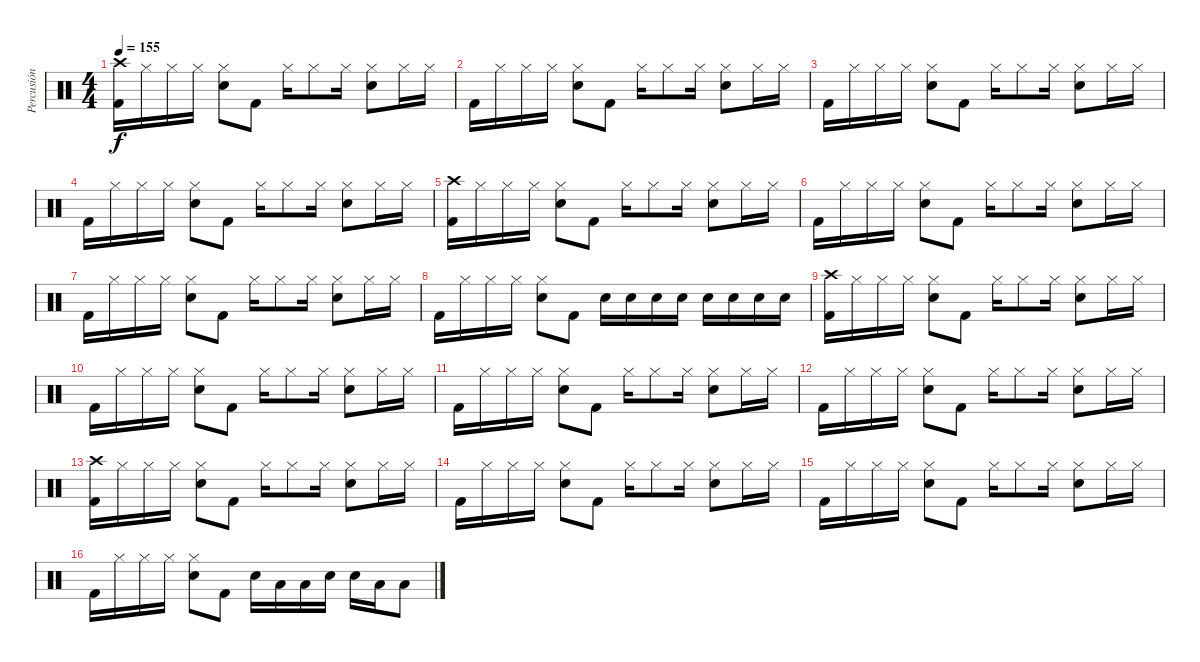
\track ("Percusión" "Percusión") {instrument percussion}
\staff {score}
\articulation defaults
\ts (4 4)
\tempo 155
\clef neutral
\ks c
("Crash high (hit)" "Kick (hit) 2").16{dy f} "Hi-Hat (closed)".16 "Hi-Hat (closed)".16 "Hi-Hat (closed)".16 ("Hi-Hat (closed)" "Snare (hit) 2").8 "Kick (hit) 2".8 "Hi-Hat (closed)".16 "Hi-Hat (closed)".8 "Hi-Hat (closed)".16 ("Hi-Hat (closed)" "Snare (hit) 2").8 "Hi-Hat (closed)".16 "Hi-Hat (closed)".16 |
"Kick (hit) 2".16 "Hi-Hat (closed)".16 "Hi-Hat (closed)".16 "Hi-Hat (closed)".16 ("Hi-Hat (closed)" "Snare (hit) 2").8 "Kick (hit) 2".8 "Hi-Hat (closed)".16 "Hi-Hat (closed)".8 "Hi-Hat (closed)".16 ("Hi-Hat (closed)" "Snare (hit) 2").8 "Hi-Hat (closed)".16 "Hi-Hat (closed)".16 |
"Kick (hit) 2".16 "Hi-Hat (closed)".16 "Hi-Hat (closed)".16 "Hi-Hat (closed)".16 ("Hi-Hat (closed)" "Snare (hit) 2").8 "Kick (hit) 2".8 "Hi-Hat (closed)".16 "Hi-Hat (closed)".8 "Hi-Hat (closed)".16 ("Hi-Hat (closed)" "Snare (hit) 2").8 "Hi-Hat (closed)".16 "Hi-Hat (closed)".16 |
"Kick (hit) 2".16 "Hi-Hat (closed)".16 "Hi-Hat (closed)".16 "Hi-Hat (closed)".16 ("Hi-Hat (closed)" "Snare (hit) 2").8 "Kick (hit) 2".8 "Hi-Hat (closed)".16 "Hi-Hat (closed)".8 "Hi-Hat (closed)".16 ("Hi-Hat (closed)" "Snare (hit) 2").8 "Hi-Hat (closed)".16 "Hi-Hat (closed)".16 |
("Crash high (hit)" "Kick (hit) 2").16 "Hi-Hat (closed)".16 "Hi-Hat (closed)".16 "Hi-Hat (closed)".16 ("Hi-Hat (closed)" "Snare (hit) 2").8 "Kick (hit) 2".8 "Hi-Hat (closed)".16 "Hi-Hat (closed)".8 "Hi-Hat (closed)".16 ("Hi-Hat (closed)" "Snare (hit) 2").8 "Hi-Hat (closed)".16 "Hi-Hat (closed)".16 |
"Kick (hit) 2".16 "Hi-Hat (closed)".16 "Hi-Hat (closed)".16 "Hi-Hat (closed)".16 ("Hi-Hat (closed)" "Snare (hit) 2").8 "Kick (hit) 2".8 "Hi-Hat (closed)".16 "Hi-Hat (closed)".8 "Hi-Hat (closed)".16 ("Hi-Hat (closed)" "Snare (hit) 2").8 "Hi-Hat (closed)".16 "Hi-Hat (closed)".16 |
"Kick (hit) 2".16 "Hi-Hat (closed)".16 "Hi-Hat (closed)".16 "Hi-Hat (closed)".16 ("Hi-Hat (closed)" "Snare (hit) 2").8 "Kick (hit) 2".8 "Hi-Hat (closed)".16 "Hi-Hat (closed)".8 "Hi-Hat (closed)".16 ("Hi-Hat (closed)" "Snare (hit) 2").8 "Hi-Hat (closed)".16 "Hi-Hat (closed)".16 |
"Kick (hit) 2".16 "Hi-Hat (closed)".16 "Hi-Hat (closed)".16 "Hi-Hat (closed)".16 ("Hi-Hat (closed)" "Snare (hit) 2").8 "Kick (hit) 2".8 "Snare (hit) 2".16 "Snare (hit) 2".16 "Snare (hit) 2".16 "Snare (hit) 2".16 "Snare (hit) 2".16 "Snare (hit) 2".16 "Snare (hit) 2".16 "Snare (hit) 2".16 |
("Crash high (hit)" "Kick (hit) 2").16 "Hi-Hat (closed)".16 "Hi-Hat (closed)".16 "Hi-Hat (closed)".16 ("Hi-Hat (closed)" "Snare (hit) 2").8 "Kick (hit) 2".8 "Hi-Hat (closed)".16 "Hi-Hat (closed)".8 "Hi-Hat (closed)".16 ("Hi-Hat (closed)" "Snare (hit) 2").8 "Hi-Hat (closed)".16 "Hi-Hat (closed)".16 |
"Kick (hit) 2".16 "Hi-Hat (closed)".16 "Hi-Hat (closed)".16 "Hi-Hat (closed)".16 ("Hi-Hat (closed)" "Snare (hit) 2").8 "Kick (hit) 2".8 "Hi-Hat (closed)".16 "Hi-Hat (closed)".8 "Hi-Hat (closed)".16 ("Hi-Hat (closed)" "Snare (hit) 2").8 "Hi-Hat (closed)".16 "Hi-Hat (closed)".16 |
"Kick (hit) 2".16 "Hi-Hat (closed)".16 "Hi-Hat (closed)".16 "Hi-Hat (closed)".16 ("Hi-Hat (closed)" "Snare (hit) 2").8 "Kick (hit) 2".8 "Hi-Hat (closed)".16 "Hi-Hat (closed)".8 "Hi-Hat (closed)".16 ("Hi-Hat (closed)" "Snare (hit) 2").8 "Hi-Hat (closed)".16 "Hi-Hat (closed)".16 |
"Kick (hit) 2".16 "Hi-Hat (closed)".16 "Hi-Hat (closed)".16 "Hi-Hat (closed)".16 ("Hi-Hat (closed)" "Snare (hit) 2").8 "Kick (hit) 2".8 "Hi-Hat (closed)".16 "Hi-Hat (closed)".8 "Hi-Hat (closed)".16 ("Hi-Hat (closed)" "Snare (hit) 2").8 "Hi-Hat (closed)".16 "Hi-Hat (closed)".16 |
("Crash high (hit)" "Kick (hit) 2").16 "Hi-Hat (closed)".16 "Hi-Hat (closed)".16 "Hi-Hat (closed)".16 ("Hi-Hat (closed)" "Snare (hit) 2").8 "Kick (hit) 2".8 "Hi-Hat (closed)".16 "Hi-Hat (closed)".8 "Hi-Hat (closed)".16 ("Hi-Hat (closed)" "Snare (hit) 2").8 "Hi-Hat (closed)".16 "Hi-Hat (closed)".16 |
"Kick (hit) 2".16 "Hi-Hat (closed)".16 "Hi-Hat (closed)".16 "Hi-Hat (closed)".16 ("Hi-Hat (closed)" "Snare (hit) 2").8 "Kick (hit) 2".8 "Hi-Hat (closed)".16 "Hi-Hat (closed)".8 "Hi-Hat (closed)".16 ("Hi-Hat (closed)" "Snare (hit) 2").8 "Hi-Hat (closed)".16 "Hi-Hat (closed)".16 |
"Kick (hit) 2".16 "Hi-Hat (closed)".16 "Hi-Hat (closed)".16 "Hi-Hat (closed)".16 ("Hi-Hat (closed)" "Snare (hit) 2").8 "Kick (hit) 2".8 "Hi-Hat (closed)".16 "Hi-Hat (closed)".8 "Hi-Hat (closed)".16 ("Hi-Hat (closed)" "Snare (hit) 2").8 "Hi-Hat (closed)".16 "Hi-Hat (closed)".16 |
"Kick (hit) 2".16 "Hi-Hat (closed)".16 "Hi-Hat (closed)".16 "Hi-Hat (closed)".16 ("Hi-Hat (closed)" "Snare (hit) 2").8 "Kick (hit) 2".8 "Snare (hit) 2".16 "Low Tom (hit)".16 "Low Tom (hit)".16 "Snare (hit) 2".16 "Snare (hit) 2".16 "Low Tom (hit)".16 "Low Tom (hit)".8
